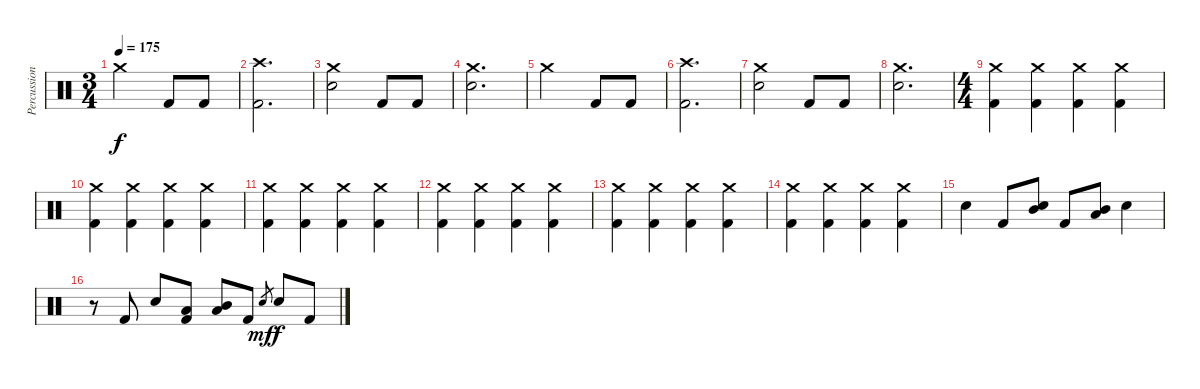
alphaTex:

\track ("Percussion" "Percussion") {instrument percussion}
\staff {score}
\articulation defaults
\ts (3 4)
\tempo 175
\clef neutral
\ks c "Crash medium (hit)".2{dy f} "Kick (hit) 2".8 "Kick (hit) 2".8
|
("Kick (hit) 2" "Crash high (hit)").2{d} |
("Crash medium (hit)" "Electric Snare (hit)").2 "Kick (hit) 2".8 "Kick (hit) 2".8 |
("Crash medium (hit)" "Electric Snare (hit)").2{d} |
"Crash medium (hit)".2 "Kick (hit) 2".8 "Kick (hit) 2".8 |
("Kick (hit) 2" "Crash high (hit)").2{d} |
("Crash medium (hit)" "Electric Snare (hit)").2 "Kick (hit) 2".8 "Kick (hit) 2".8 |
("Crash medium (hit)" "Electric Snare (hit)").2{d} |
\ts (4 4)
("Kick (hit) 2" "Crash medium (hit)").4 ("Kick (hit) 2" "Crash medium (hit)").4 ("Kick (hit) 2" "Crash medium (hit)").4 ("Kick (hit) 2" "Crash medium (hit)").4 |
("Kick (hit) 2" "Crash medium (hit)").4 ("Kick (hit) 2" "Crash medium (hit)").4 ("Kick (hit) 2" "Crash medium (hit)").4 ("Kick (hit) 2" "Crash medium (hit)").4 |
("Kick (hit) 2" "Crash medium (hit)").4 ("Kick (hit) 2" "Crash medium (hit)").4 ("Kick (hit) 2" "Crash medium (hit)").4 ("Kick (hit) 2" "Crash medium (hit)").4 |
("Kick (hit) 2" "Crash medium (hit)").4 ("Kick (hit) 2" "Crash medium (hit)").4 ("Kick (hit) 2" "Crash medium (hit)").4 ("Kick (hit) 2" "Crash medium (hit)").4 |
("Kick (hit) 2" "Crash medium (hit)").4 ("Kick (hit) 2" "Crash medium (hit)").4 ("Kick (hit) 2" "Crash medium (hit)").4 ("Kick (hit) 2" "Crash medium (hit)").4 |
("Kick (hit) 2" "Crash medium (hit)").4 ("Kick (hit) 2" "Crash medium (hit)").4 ("Kick (hit) 2" "Crash medium (hit)").4 ("Kick (hit) 2" "Crash medium (hit)").4 |
"Electric Snare (hit)".4 "Kick (hit) 2".8 ("Electric Snare (hit)" "Mid Tom (hit)").8 "Kick (hit) 2".8 ("Mid Tom (hit)" "Low Tom (hit)").8 "Electric Snare (hit)".4 |
r.8 "Kick (hit) 2".8 "Electric Snare (hit)".8 ("Kick (hit) 2" "Low Tom (hit)").8 ("Mid Tom (hit)" "Low Tom (hit)").8 "Kick (hit) 2".8 "Electric Snare (hit)".8{gr dy mf} "Electric Snare (hit)".8{dy f} "Kick (hit) 2".8
